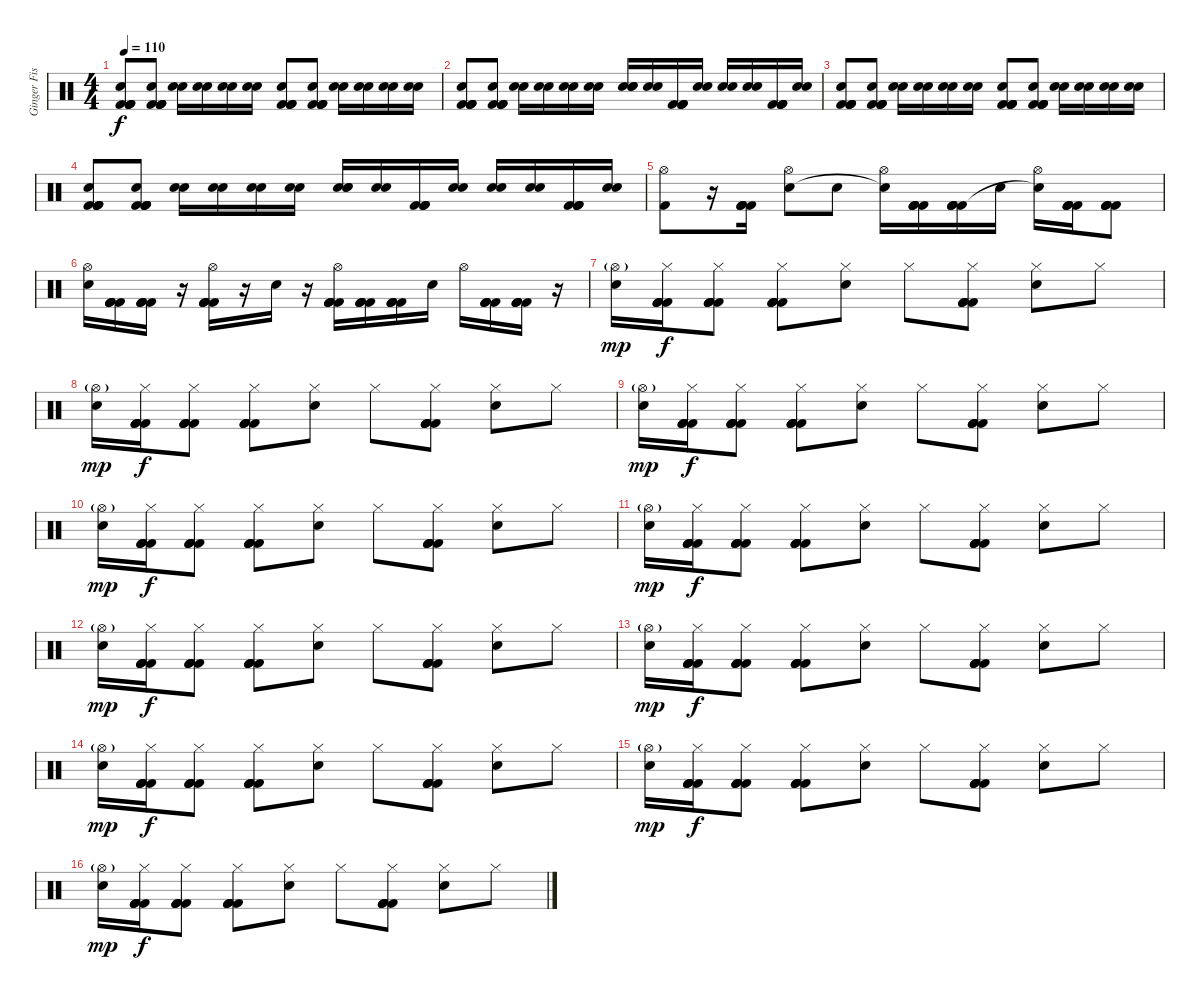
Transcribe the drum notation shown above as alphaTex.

\track ("Ginger Fish" "Ginger Fis") {instrument percussion}
\staff {score}
\articulation defaults
\ts (4 4)
\tempo 110
\clef neutral
\ks c
("Hand Clap (hit)" "Kick (hit) 2" "Kick (hit) 2" "Kick (hit) 2" "Kick (hit) 2").8{dy f} ("Hand Clap (hit)" "Kick (hit) 2" "Kick (hit) 2" "Kick (hit) 2" "Kick (hit) 2").8 ("Electric Snare (hit)" "Electric Snare (hit)").16 ("Electric Snare (hit)" "Electric Snare (hit)").16 ("Electric Snare (hit)" "Electric Snare (hit)").16 ("Electric Snare (hit)" "Electric Snare (hit)").16 ("Hand Clap (hit)" "Kick (hit) 2" "Kick (hit) 2" "Kick (hit) 2" "Kick (hit) 2").8 ("Hand Clap (hit)" "Kick (hit) 2" "Kick (hit) 2" "Kick (hit) 2" "Kick (hit) 2").8 ("Electric Snare (hit)" "Electric Snare (hit)").16 ("Electric Snare (hit)" "Electric Snare (hit)").16 ("Electric Snare (hit)" "Electric Snare (hit)").16 ("Electric Snare (hit)" "Electric Snare (hit)").16 |
("Hand Clap (hit)" "Kick (hit) 2" "Kick (hit) 2" "Kick (hit) 2" "Kick (hit) 2").8 ("Hand Clap (hit)" "Kick (hit) 2" "Kick (hit) 2" "Kick (hit) 2" "Kick (hit) 2").8 ("Electric Snare (hit)" "Electric Snare (hit)").16 ("Electric Snare (hit)" "Electric Snare (hit)").16 ("Electric Snare (hit)" "Electric Snare (hit)").16 ("Electric Snare (hit)" "Electric Snare (hit)").16 ("Hand Clap (hit)" "Electric Snare (hit)" "Electric Snare (hit)").16 ("Electric Snare (hit)" "Electric Snare (hit)").16 ("Kick (hit) 2" "Kick (hit) 2" "Kick (hit) 2" "Kick (hit) 2").16 ("Electric Snare (hit)" "Electric Snare (hit)").16 ("Electric Snare (hit)" "Electric Snare (hit)").16 ("Electric Snare (hit)" "Electric Snare (hit)").16 ("Kick (hit) 2" "Kick (hit) 2" "Kick (hit) 2" "Kick (hit) 2").16 ("Electric Snare (hit)" "Electric Snare (hit)").16 |
("Hand Clap (hit)" "Kick (hit) 2" "Kick (hit) 2" "Kick (hit) 2" "Kick (hit) 2").8 ("Hand Clap (hit)" "Kick (hit) 2" "Kick (hit) 2" "Kick (hit) 2" "Kick (hit) 2").8 ("Electric Snare (hit)" "Electric Snare (hit)").16 ("Electric Snare (hit)" "Electric Snare (hit)").16 ("Electric Snare (hit)" "Electric Snare (hit)").16 ("Electric Snare (hit)" "Electric Snare (hit)").16 ("Hand Clap (hit)" "Kick (hit) 2" "Kick (hit) 2" "Kick (hit) 2" "Kick (hit) 2").8 ("Hand Clap (hit)" "Kick (hit) 2" "Kick (hit) 2" "Kick (hit) 2" "Kick (hit) 2").8 ("Electric Snare (hit)" "Electric Snare (hit)").16 ("Electric Snare (hit)" "Electric Snare (hit)").16 ("Electric Snare (hit)" "Electric Snare (hit)").16 ("Electric Snare (hit)" "Electric Snare (hit)").16 |
("Hand Clap (hit)" "Kick (hit) 2" "Kick (hit) 2" "Kick (hit) 2" "Kick (hit) 2").8 ("Hand Clap (hit)" "Kick (hit) 2" "Kick (hit) 2" "Kick (hit) 2" "Kick (hit) 2").8 ("Electric Snare (hit)" "Electric Snare (hit)").16 ("Electric Snare (hit)" "Electric Snare (hit)").16 ("Electric Snare (hit)" "Electric Snare (hit)").16 ("Electric Snare (hit)" "Electric Snare (hit)").16 ("Hand Clap (hit)" "Electric Snare (hit)" "Electric Snare (hit)").16 ("Electric Snare (hit)" "Electric Snare (hit)").16 ("Kick (hit) 2" "Kick (hit) 2" "Kick (hit) 2" "Kick (hit) 2").16 ("Electric Snare (hit)" "Electric Snare (hit)").16 ("Electric Snare (hit)" "Electric Snare (hit)").16 ("Electric Snare (hit)" "Electric Snare (hit)").16 ("Kick (hit) 2" "Kick (hit) 2" "Kick (hit) 2" "Kick (hit) 2").16 ("Electric Snare (hit)" "Electric Snare (hit)").16 |
("Hi-Hat (open)" "Kick (hit) 2").8 r.16 ("Kick (hit) 2" "Kick (hit) 2" "Kick (hit) 2" "Kick (hit) 2").16 ("Hi-Hat (open)" "Electric Snare (hit)").8 "Electric Snare (hit)".8 ("Hi-Hat (open)" "Snare (hit)"{t}).16 ("Kick (hit) 2" "Kick (hit) 2" "Kick (hit) 2" "Kick (hit) 2").16 ("Kick (hit) 2" "Kick (hit) 2" "Kick (hit) 2" "Kick (hit) 2").16 "Electric Snare (hit)".16 ("Hi-Hat (open)" "Electric Snare (hit)"{t}).16 ("Kick (hit) 2" "Kick (hit) 2" "Kick (hit) 2" "Kick (hit) 2").16 ("Kick (hit) 2" "Kick (hit) 2" "Kick (hit) 2" "Kick (hit) 2").8 |
("Hi-Hat (open)" "Electric Snare (hit)").16 ("Kick (hit) 2" "Kick (hit) 2" "Kick (hit) 2" "Kick (hit) 2").16 ("Kick (hit) 2" "Kick (hit) 2" "Kick (hit) 2" "Kick (hit) 2").16 r.16 ("Hi-Hat (open)" "Kick (hit) 2" "Kick (hit) 2" "Kick (hit) 2" "Kick (hit) 2").16 r.16 "Electric Snare (hit)".16 r.16 ("Hi-Hat (open)" "Kick (hit) 2" "Kick (hit) 2" "Kick (hit) 2" "Kick (hit) 2").16 ("Kick (hit) 2" "Kick (hit) 2" "Kick (hit) 2" "Kick (hit) 2").16 ("Kick (hit) 2" "Kick (hit) 2" "Kick (hit) 2" "Kick (hit) 2").16 "Electric Snare (hit)".16 "Hi-Hat (open)".16 ("Kick (hit) 2" "Kick (hit) 2" "Kick (hit) 2" "Kick (hit) 2").16 ("Kick (hit) 2" "Kick (hit) 2" "Kick (hit) 2" "Kick (hit) 2").16 r.16 |
("Hi-Hat (open)"{g} "Electric Snare (hit)").16{dy mp} ("Hi-Hat (closed)" "Kick (hit) 2" "Kick (hit) 2" "Kick (hit) 2" "Kick (hit) 2").16{dy f} ("Hi-Hat (closed)" "Kick (hit) 2" "Kick (hit) 2" "Kick (hit) 2" "Kick (hit) 2").8 ("Hi-Hat (closed)" "Kick (hit) 2" "Kick (hit) 2" "Kick (hit) 2" "Kick (hit) 2").8 ("Hi-Hat (closed)" "Electric Snare (hit)").8 "Hi-Hat (closed)".8 ("Hi-Hat (closed)" "Kick (hit) 2" "Kick (hit) 2" "Kick (hit) 2" "Kick (hit) 2").8 ("Hi-Hat (closed)" "Electric Snare (hit)").8 "Hi-Hat (closed)".8 |
("Hi-Hat (open)"{g} "Electric Snare (hit)").16{dy mp} ("Hi-Hat (closed)" "Kick (hit) 2" "Kick (hit) 2" "Kick (hit) 2" "Kick (hit) 2").16{dy f} ("Hi-Hat (closed)" "Kick (hit) 2" "Kick (hit) 2" "Kick (hit) 2" "Kick (hit) 2").8 ("Hi-Hat (closed)" "Kick (hit) 2" "Kick (hit) 2" "Kick (hit) 2" "Kick (hit) 2").8 ("Hi-Hat (closed)" "Electric Snare (hit)").8 "Hi-Hat (closed)".8 ("Hi-Hat (closed)" "Kick (hit) 2" "Kick (hit) 2" "Kick (hit) 2" "Kick (hit) 2").8 ("Hi-Hat (closed)" "Electric Snare (hit)").8 "Hi-Hat (closed)".8 |
("Hi-Hat (open)"{g} "Electric Snare (hit)").16{dy mp} ("Hi-Hat (closed)" "Kick (hit) 2" "Kick (hit) 2" "Kick (hit) 2" "Kick (hit) 2").16{dy f} ("Hi-Hat (closed)" "Kick (hit) 2" "Kick (hit) 2" "Kick (hit) 2" "Kick (hit) 2").8 ("Hi-Hat (closed)" "Kick (hit) 2" "Kick (hit) 2" "Kick (hit) 2" "Kick (hit) 2").8 ("Hi-Hat (closed)" "Electric Snare (hit)").8 "Hi-Hat (closed)".8 ("Hi-Hat (closed)" "Kick (hit) 2" "Kick (hit) 2" "Kick (hit) 2" "Kick (hit) 2").8 ("Hi-Hat (closed)" "Electric Snare (hit)").8 "Hi-Hat (closed)".8 |
("Hi-Hat (open)"{g} "Electric Snare (hit)").16{dy mp} ("Hi-Hat (closed)" "Kick (hit) 2" "Kick (hit) 2" "Kick (hit) 2" "Kick (hit) 2").16{dy f} ("Hi-Hat (closed)" "Kick (hit) 2" "Kick (hit) 2" "Kick (hit) 2" "Kick (hit) 2").8 ("Hi-Hat (closed)" "Kick (hit) 2" "Kick (hit) 2" "Kick (hit) 2" "Kick (hit) 2").8 ("Hi-Hat (closed)" "Electric Snare (hit)").8 "Hi-Hat (closed)".8 ("Hi-Hat (closed)" "Kick (hit) 2" "Kick (hit) 2" "Kick (hit) 2" "Kick (hit) 2").8 ("Hi-Hat (closed)" "Electric Snare (hit)").8 "Hi-Hat (closed)".8 |
("Hi-Hat (open)"{g} "Electric Snare (hit)").16{dy mp} ("Hi-Hat (closed)" "Kick (hit) 2" "Kick (hit) 2" "Kick (hit) 2" "Kick (hit) 2").16{dy f} ("Hi-Hat (closed)" "Kick (hit) 2" "Kick (hit) 2" "Kick (hit) 2" "Kick (hit) 2").8 ("Hi-Hat (closed)" "Kick (hit) 2" "Kick (hit) 2" "Kick (hit) 2" "Kick (hit) 2").8 ("Hi-Hat (closed)" "Electric Snare (hit)").8 "Hi-Hat (closed)".8 ("Hi-Hat (closed)" "Kick (hit) 2" "Kick (hit) 2" "Kick (hit) 2" "Kick (hit) 2").8 ("Hi-Hat (closed)" "Electric Snare (hit)").8 "Hi-Hat (closed)".8 |
("Hi-Hat (open)"{g} "Electric Snare (hit)").16{dy mp} ("Hi-Hat (closed)" "Kick (hit) 2" "Kick (hit) 2" "Kick (hit) 2" "Kick (hit) 2").16{dy f} ("Hi-Hat (closed)" "Kick (hit) 2" "Kick (hit) 2" "Kick (hit) 2" "Kick (hit) 2").8 ("Hi-Hat (closed)" "Kick (hit) 2" "Kick (hit) 2" "Kick (hit) 2" "Kick (hit) 2").8 ("Hi-Hat (closed)" "Electric Snare (hit)").8 "Hi-Hat (closed)".8 ("Hi-Hat (closed)" "Kick (hit) 2" "Kick (hit) 2" "Kick (hit) 2" "Kick (hit) 2").8 ("Hi-Hat (closed)" "Electric Snare (hit)").8 "Hi-Hat (closed)".8 |
("Hi-Hat (open)"{g} "Electric Snare (hit)").16{dy mp} ("Hi-Hat (closed)" "Kick (hit) 2" "Kick (hit) 2" "Kick (hit) 2" "Kick (hit) 2").16{dy f} ("Hi-Hat (closed)" "Kick (hit) 2" "Kick (hit) 2" "Kick (hit) 2" "Kick (hit) 2").8 ("Hi-Hat (closed)" "Kick (hit) 2" "Kick (hit) 2" "Kick (hit) 2" "Kick (hit) 2").8 ("Hi-Hat (closed)" "Electric Snare (hit)").8 "Hi-Hat (closed)".8 ("Hi-Hat (closed)" "Kick (hit) 2" "Kick (hit) 2" "Kick (hit) 2" "Kick (hit) 2").8 ("Hi-Hat (closed)" "Electric Snare (hit)").8 "Hi-Hat (closed)".8 |
("Hi-Hat (open)"{g} "Electric Snare (hit)").16{dy mp} ("Hi-Hat (closed)" "Kick (hit) 2" "Kick (hit) 2" "Kick (hit) 2" "Kick (hit) 2").16{dy f} ("Hi-Hat (closed)" "Kick (hit) 2" "Kick (hit) 2" "Kick (hit) 2" "Kick (hit) 2").8 ("Hi-Hat (closed)" "Kick (hit) 2" "Kick (hit) 2" "Kick (hit) 2" "Kick (hit) 2").8 ("Hi-Hat (closed)" "Electric Snare (hit)").8 "Hi-Hat (closed)".8 ("Hi-Hat (closed)" "Kick (hit) 2" "Kick (hit) 2" "Kick (hit) 2" "Kick (hit) 2").8 ("Hi-Hat (closed)" "Electric Snare (hit)").8 "Hi-Hat (closed)".8 |
("Hi-Hat (open)"{g} "Electric Snare (hit)").16{dy mp} ("Hi-Hat (closed)" "Kick (hit) 2" "Kick (hit) 2" "Kick (hit) 2" "Kick (hit) 2").16{dy f} ("Hi-Hat (closed)" "Kick (hit) 2" "Kick (hit) 2" "Kick (hit) 2" "Kick (hit) 2").8 ("Hi-Hat (closed)" "Kick (hit) 2" "Kick (hit) 2" "Kick (hit) 2" "Kick (hit) 2").8 ("Hi-Hat (closed)" "Electric Snare (hit)").8 "Hi-Hat (closed)".8 ("Hi-Hat (closed)" "Kick (hit) 2" "Kick (hit) 2" "Kick (hit) 2" "Kick (hit) 2").8 ("Hi-Hat (closed)" "Electric Snare (hit)").8 "Hi-Hat (closed)".8 |
("Hi-Hat (open)"{g} "Electric Snare (hit)").16{dy mp} ("Hi-Hat (closed)" "Kick (hit) 2" "Kick (hit) 2" "Kick (hit) 2" "Kick (hit) 2").16{dy f} ("Hi-Hat (closed)" "Kick (hit) 2" "Kick (hit) 2" "Kick (hit) 2" "Kick (hit) 2").8 ("Hi-Hat (closed)" "Kick (hit) 2" "Kick (hit) 2" "Kick (hit) 2" "Kick (hit) 2").8 ("Hi-Hat (closed)" "Electric Snare (hit)").8 "Hi-Hat (closed)".8 ("Hi-Hat (closed)" "Kick (hit) 2" "Kick (hit) 2" "Kick (hit) 2" "Kick (hit) 2").8 ("Hi-Hat (closed)" "Electric Snare (hit)").8 "Hi-Hat (closed)".8
